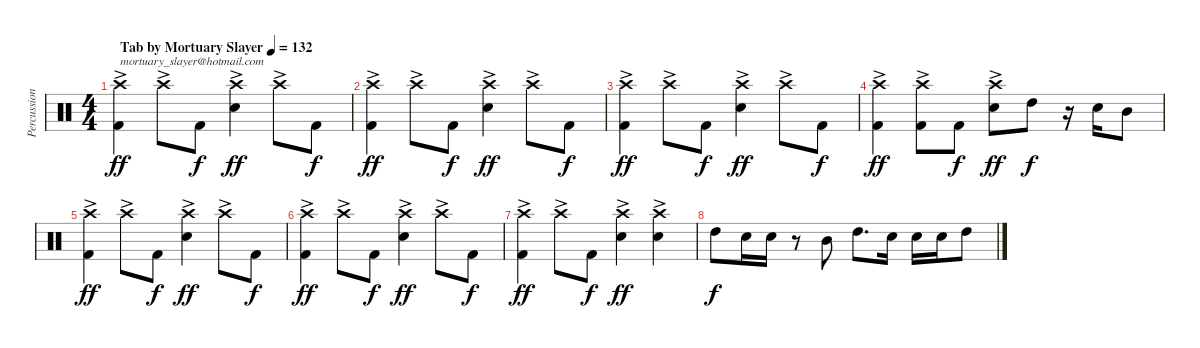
\track ("Percussions" "Percussion") {instrument percussion}
\staff {score}
\articulation defaults
\ts (4 4)
\tempo (132 "Tab by Mortuary Slayer")
\clef neutral
\ks c
("Crash high (hit)"{ac} "Kick (hit) 2").4{txt "mortuary_slayer@hotmail.com" dy ff} "Crash high (hit)"{ac}.8 "Kick (hit) 2".8{dy f} ("Crash high (hit)"{ac} "Electric Snare (hit)").4{dy ff} "Crash high (hit)"{ac}.8 "Kick (hit) 2".8{dy f} |
("Crash high (hit)"{ac} "Kick (hit) 2").4{dy ff} "Crash high (hit)"{ac}.8 "Kick (hit) 2".8{dy f} ("Crash high (hit)"{ac} "Electric Snare (hit)").4{dy ff} "Crash high (hit)"{ac}.8 "Kick (hit) 2".8{dy f} |
("Crash high (hit)"{ac} "Kick (hit) 2").4{dy ff} "Crash high (hit)"{ac}.8 "Kick (hit) 2".8{dy f} ("Crash high (hit)"{ac} "Electric Snare (hit)").4{dy ff} "Crash high (hit)"{ac}.8 "Kick (hit) 2".8{dy f} |
("Crash high (hit)"{ac} "Kick (hit) 2").4{dy ff} ("Crash high (hit)"{ac} "Kick (hit) 2").8 "Kick (hit) 2".8{dy f} ("Crash high (hit)"{ac} "Electric Snare (hit)").8{dy ff} "High Tom (hit)".8{dy f} r.16 "Electric Snare (hit)".16 "Mid Tom (hit)".8 |
("Crash high (hit)"{ac} "Kick (hit) 2").4{dy ff} "Crash high (hit)"{ac}.8 "Kick (hit) 2".8{dy f} ("Crash high (hit)"{ac} "Electric Snare (hit)").4{dy ff} "Crash high (hit)"{ac}.8 "Kick (hit) 2".8{dy f} |
("Crash high (hit)"{ac} "Kick (hit) 2").4{dy ff} "Crash high (hit)"{ac}.8 "Kick (hit) 2".8{dy f} ("Crash high (hit)"{ac} "Electric Snare (hit)").4{dy ff} "Crash high (hit)"{ac}.8 "Kick (hit) 2".8{dy f} |
("Crash high (hit)"{ac} "Kick (hit) 2").4{dy ff} "Crash high (hit)"{ac}.8 "Kick (hit) 2".8{dy f} ("Crash high (hit)"{ac} "Electric Snare (hit)").4{dy ff} ("Crash high (hit)"{ac} "Electric Snare (hit)").4 |
"High Tom (hit)".8{dy f} "Electric Snare (hit)".16 "Electric Snare (hit)".16 r.8 "Mid Tom (hit)".8 "High Tom (hit)".8{d} "Electric Snare (hit)".16 "Electric Snare (hit)".16 "Electric Snare (hit)".16 "High Tom (hit)".8
